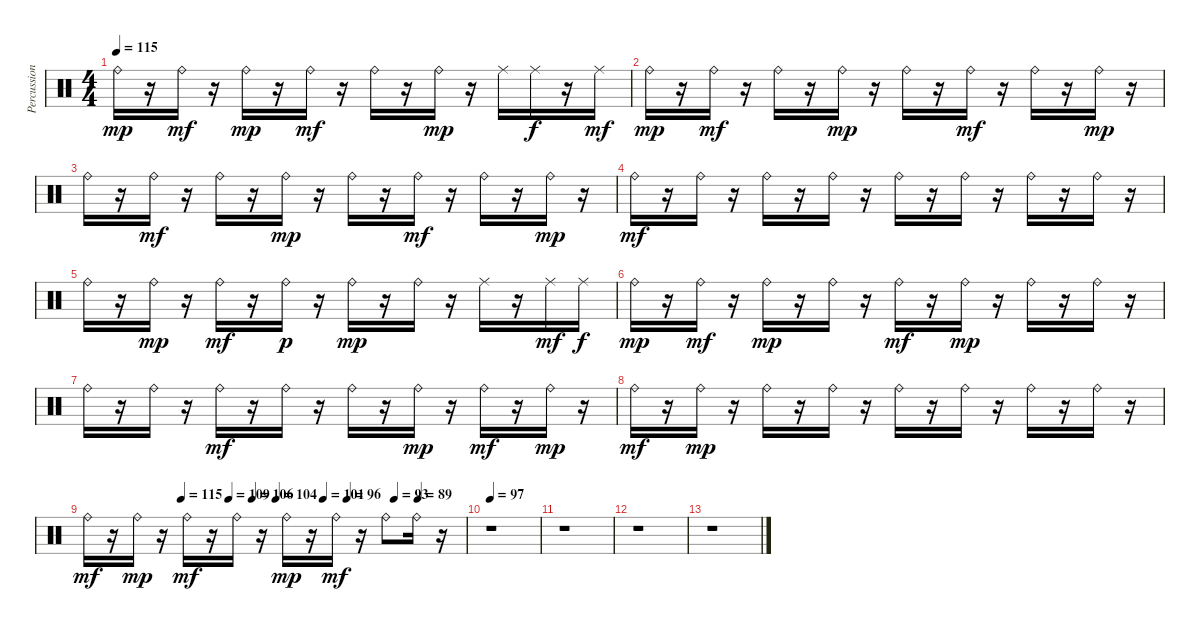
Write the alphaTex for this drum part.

\track ("Percussion" "Percussion") {instrument percussion}
\staff {score}
\articulation defaults
\ts (4 4)
\tempo 115
\clef neutral
\ks c "Ride (bell)".16{dy mp}
r.16 "Ride (bell)".16{dy mf} r.16 "Ride (bell)".16{dy mp} r.16 "Ride (bell)".16{dy mf} r.16 "Ride (bell)".16 r.16 "Ride (bell)".16{dy mp} r.16 "Ride (middle)".16 "Ride (middle)".16{dy f} r.16 "Ride (middle)".16{dy mf} |
"Ride (bell)".16{dy mp} r.16 "Ride (bell)".16{dy mf} r.16 "Ride (bell)".16 r.16 "Ride (bell)".16{dy mp} r.16 "Ride (bell)".16 r.16 "Ride (bell)".16{dy mf} r.16 "Ride (bell)".16 r.16 "Ride (bell)".16{dy mp} r.16 |
"Ride (bell)".16 r.16 "Ride (bell)".16{dy mf} r.16 "Ride (bell)".16 r.16 "Ride (bell)".16{dy mp} r.16 "Ride (bell)".16 r.16 "Ride (bell)".16{dy mf} r.16 "Ride (bell)".16 r.16 "Ride (bell)".16{dy mp} r.16 |
"Ride (bell)".16{dy mf} r.16 "Ride (bell)".16 r.16 "Ride (bell)".16 r.16 "Ride (bell)".16 r.16 "Ride (bell)".16 r.16 "Ride (bell)".16 r.16 "Ride (bell)".16 r.16 "Ride (bell)".16 r.16 |
"Ride (bell)".16 r.16 "Ride (bell)".16{dy mp} r.16 "Ride (bell)".16{dy mf} r.16 "Ride (bell)".16{dy p} r.16 "Ride (bell)".16{dy mp} r.16 "Ride (bell)".16 r.16 "Ride (middle)".16 r.16 "Ride (middle)".16{dy mf} "Ride (middle)".16{dy f} |
"Ride (bell)".16{dy mp} r.16 "Ride (bell)".16{dy mf} r.16 "Ride (bell)".16{dy mp} r.16 "Ride (bell)".16 r.16 "Ride (bell)".16{dy mf} r.16 "Ride (bell)".16{dy mp} r.16 "Ride (bell)".16 r.16 "Ride (bell)".16 r.16 |
"Ride (bell)".16 r.16 "Ride (bell)".16 r.16 "Ride (bell)".16{dy mf} r.16 "Ride (bell)".16 r.16 "Ride (bell)".16 r.16 "Ride (bell)".16{dy mp} r.16 "Ride (bell)".16{dy mf} r.16 "Ride (bell)".16{dy mp} r.16 |
"Ride (bell)".16{dy mf} r.16 "Ride (bell)".16{dy mp} r.16 "Ride (bell)".16 r.16 "Ride (bell)".16 r.16 "Ride (bell)".16 r.16 "Ride (bell)".16 r.16 "Ride (bell)".16 r.16 "Ride (bell)".16 r.16 |
\tempo (115 0.25)
\tempo (109 0.375)
\tempo (106 0.4375)
\tempo (104 0.5)
\tempo (101 0.625)
\tempo (96 0.6875)
\tempo (93 0.8125)
\tempo (89 0.875)
"Ride (bell)".16{dy mf} r.16 "Ride (bell)".16{dy mp} r.16 "Ride (bell)".16{dy mf} r.16 "Ride (bell)".16 r.16 "Ride (bell)".16{dy mp} r.16 "Ride (bell)".16{dy mf} r.16 "Ride (bell)".8 "Ride (bell)".16 r.16 |
\tempo 97
r.1 |
r.1 |
r.1 |
r.1
